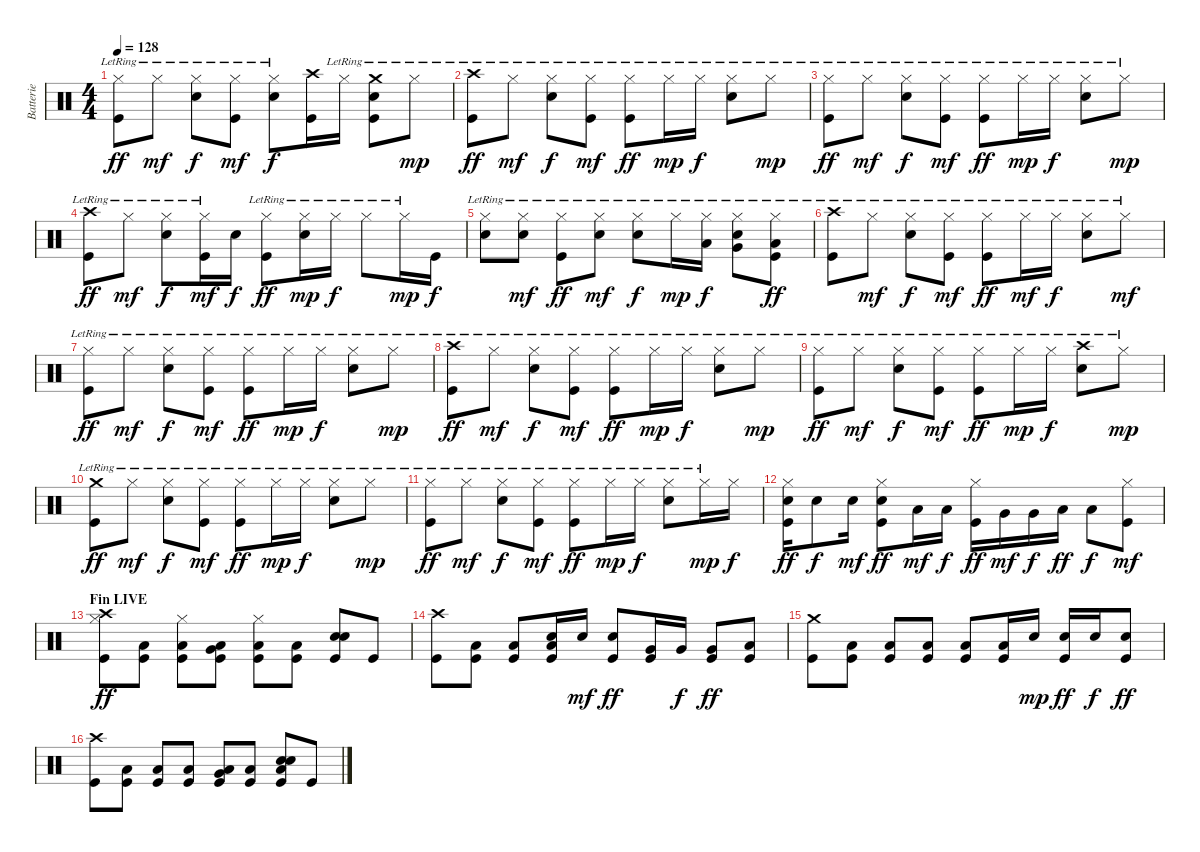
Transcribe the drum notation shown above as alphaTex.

\track ("Batterie" "Batterie") {instrument percussion}
\staff {score}
\articulation defaults
\ts (4 4)
\tempo 128
\clef neutral
\ks c
("Hi-Hat (closed)"{lr} "Kick (hit)"{lr}).8{dy ff} "Hi-Hat (closed)"{lr}.8{dy mf} ("Hi-Hat (closed)"{lr} "Snare (hit) 2"{lr}).8{dy f} ("Hi-Hat (closed)"{lr} "Kick (hit)"{lr}).8{dy mf} ("Hi-Hat (closed)"{lr} "Snare (hit) 2").8{dy f} ("Crash high (hit)" "Kick (hit)").16 "Hi-Hat (closed)"{lr}.16 ("Crash medium (hit)" "Snare (hit) 2"{lr} "Kick (hit)").8 "Hi-Hat (closed)"{lr}.8{dy mp} |
("Crash high (hit)" "Kick (hit)"{lr}).8{dy ff} "Hi-Hat (closed)"{lr}.8{dy mf} ("Hi-Hat (closed)"{lr} "Snare (hit) 2"{lr}).8{dy f} ("Hi-Hat (closed)"{lr} "Kick (hit)"{lr}).8{dy mf} ("Hi-Hat (closed)"{lr} "Kick (hit)"{lr}).8{dy ff} "Hi-Hat (closed)"{lr}.16{dy mp} "Hi-Hat (closed)"{lr}.16{dy f} ("Hi-Hat (closed)"{lr} "Snare (hit) 2"{lr}).8 "Hi-Hat (closed)"{lr}.8{dy mp} |
("Hi-Hat (closed)"{lr} "Kick (hit)"{lr}).8{dy ff} "Hi-Hat (closed)"{lr}.8{dy mf} ("Hi-Hat (closed)"{lr} "Snare (hit) 2"{lr}).8{dy f} ("Hi-Hat (closed)"{lr} "Kick (hit)"{lr}).8{dy mf} ("Hi-Hat (closed)"{lr} "Kick (hit)"{lr}).8{dy ff} "Hi-Hat (closed)"{lr}.16{dy mp} "Hi-Hat (closed)"{lr}.16{dy f} ("Hi-Hat (closed)"{lr} "Snare (hit) 2"{lr}).8 "Hi-Hat (closed)"{lr}.8{dy mp} |
("Crash high (hit)" "Kick (hit)"{lr}).8{dy ff} "Hi-Hat (closed)"{lr}.8{dy mf} ("Hi-Hat (closed)"{lr} "Snare (hit) 2"{lr}).8{dy f} ("Hi-Hat (closed)"{lr} "Kick (hit)"{lr}).16{dy mf} "Snare (hit) 2".16{dy f} ("Hi-Hat (closed)"{lr} "Kick (hit)"{lr}).8{dy ff} ("Hi-Hat (closed)"{lr} "Snare (hit) 2").16{dy mp} "Hi-Hat (closed)"{lr}.16{dy f} "Hi-Hat (closed)"{lr}.8 "Hi-Hat (closed)"{lr}.16{dy mp} "Kick (hit)".16{dy f} |
("Hi-Hat (closed)"{lr} "Snare (hit) 2").8 ("Hi-Hat (closed)"{lr} "Snare (hit) 2").8{dy mf} ("Hi-Hat (closed)"{lr} "Kick (hit)").8{dy ff} ("Hi-Hat (closed)"{lr} "Snare (hit) 2").8{dy mf} ("Hi-Hat (closed)"{lr} "Snare (hit) 2").8{dy f} "Hi-Hat (closed)"{lr}.16{dy mp} ("Low Tom (hit)" "Hi-Hat (closed)"{lr}).16{dy f} ("Very Low Tom (hit)" "Hi-Hat (closed)"{lr} "Snare (hit) 2"{lr}).8 ("Low Floor Tom (hit)" "Hi-Hat (closed)"{lr} "Kick (hit)"{lr}).8{dy ff} |
("Crash high (hit)"{lr} "Kick (hit)"{lr}).8 "Hi-Hat (closed)"{lr}.8{dy mf} ("Hi-Hat (closed)"{lr} "Snare (hit) 2"{lr}).8{dy f} ("Hi-Hat (closed)"{lr} "Kick (hit)"{lr}).8{dy mf} ("Hi-Hat (closed)"{lr} "Kick (hit)"{lr}).8{dy ff} "Hi-Hat (closed)"{lr}.16{dy mf} "Hi-Hat (closed)"{lr}.16{dy f} ("Hi-Hat (closed)"{lr} "Snare (hit) 2"{lr}).8 "Hi-Hat (closed)"{lr}.8{dy mf} |
("Hi-Hat (closed)"{lr} "Kick (hit)"{lr}).8{dy ff} "Hi-Hat (closed)"{lr}.8{dy mf} ("Hi-Hat (closed)"{lr} "Snare (hit) 2"{lr}).8{dy f} ("Hi-Hat (closed)"{lr} "Kick (hit)"{lr}).8{dy mf} ("Hi-Hat (closed)"{lr} "Kick (hit)"{lr}).8{dy ff} "Hi-Hat (closed)"{lr}.16{dy mp} "Hi-Hat (closed)"{lr}.16{dy f} ("Hi-Hat (closed)"{lr} "Snare (hit) 2"{lr}).8 "Hi-Hat (closed)"{lr}.8{dy mp} |
("Crash high (hit)" "Kick (hit)"{lr}).8{dy ff} "Hi-Hat (closed)"{lr}.8{dy mf} ("Hi-Hat (closed)"{lr} "Snare (hit) 2"{lr}).8{dy f} ("Hi-Hat (closed)"{lr} "Kick (hit)"{lr}).8{dy mf} ("Hi-Hat (closed)"{lr} "Kick (hit)"{lr}).8{dy ff} "Hi-Hat (closed)"{lr}.16{dy mp} "Hi-Hat (closed)"{lr}.16{dy f} ("Hi-Hat (closed)"{lr} "Snare (hit) 2"{lr}).8 "Hi-Hat (closed)"{lr}.8{dy mp} |
("Hi-Hat (closed)"{lr} "Kick (hit)"{lr}).8{dy ff} "Hi-Hat (closed)"{lr}.8{dy mf} ("Hi-Hat (closed)"{lr} "Snare (hit) 2"{lr}).8{dy f} ("Hi-Hat (closed)"{lr} "Kick (hit)"{lr}).8{dy mf} ("Hi-Hat (closed)"{lr} "Kick (hit)"{lr}).8{dy ff} "Hi-Hat (closed)"{lr}.16{dy mp} "Hi-Hat (closed)"{lr}.16{dy f} ("Crash high (hit)" "Snare (hit) 2"{lr}).8 "Hi-Hat (closed)"{lr}.8{dy mp} |
("Crash medium (hit)" "Kick (hit)"{lr}).8{dy ff} "Hi-Hat (closed)"{lr}.8{dy mf} ("Hi-Hat (closed)"{lr} "Snare (hit) 2"{lr}).8{dy f} ("Hi-Hat (closed)"{lr} "Kick (hit)"{lr}).8{dy mf} ("Hi-Hat (closed)"{lr} "Kick (hit)"{lr}).8{dy ff} "Hi-Hat (closed)"{lr}.16{dy mp} "Hi-Hat (closed)"{lr}.16{dy f} ("Hi-Hat (closed)"{lr} "Snare (hit) 2"{lr}).8 "Hi-Hat (closed)"{lr}.8{dy mp} |
("Hi-Hat (closed)"{lr} "Kick (hit)"{lr}).8{dy ff} "Hi-Hat (closed)"{lr}.8{dy mf} ("Hi-Hat (closed)"{lr} "Snare (hit) 2"{lr}).8{dy f} ("Hi-Hat (closed)"{lr} "Kick (hit)"{lr}).8{dy mf} ("Hi-Hat (closed)"{lr} "Kick (hit)"{lr}).8{dy ff} "Hi-Hat (closed)"{lr}.16{dy mp} "Hi-Hat (closed)"{lr}.16{dy f} ("Hi-Hat (closed)"{lr} "Snare (hit) 2"{lr}).8 "Hi-Hat (closed)"{lr}.16{dy mp} "Hi-Hat (closed)".16{dy f} |
("Hi-Hat (closed)" "Snare (hit) 2" "Kick (hit)").16{dy ff} "Snare (hit) 2".8{dy f} "Snare (hit) 2".16{dy mf} ("Hi-Hat (closed)" "Snare (hit) 2" "Kick (hit)").8{dy ff} "Low Tom (hit)".16{dy mf} "Low Tom (hit)".16{dy f} ("Hi-Hat (closed)" "Kick (hit)").16{dy ff} "Very Low Tom (hit)".16{dy mf} "Very Low Tom (hit)".16{dy f} "Low Floor Tom (hit)".16{dy ff} "Low Floor Tom (hit)".8{dy f} ("Hi-Hat (closed)" "Kick (hit)").8{dy mf} |
\section ("" "Fin LIVE")
("Crash high (hit)" "Hi-Hat (closed)" "Kick (hit)").8{dy ff} ("Low Floor Tom (hit)" "Kick (hit)").8 ("Low Floor Tom (hit)" "Hi-Hat (closed)" "Kick (hit)").8 ("Very Low Tom (hit)" "Low Floor Tom (hit)" "Kick (hit)").8 ("Low Floor Tom (hit)" "Hi-Hat (closed)" "Kick (hit)").8 ("Low Floor Tom (hit)" "Kick (hit)").8 ("Snare (hit) 2" "Snare (hit) 2" "Kick (hit)").8{bu 60} "Kick (hit)".8 |
("Crash high (hit)" "Kick (hit)").8 ("Low Floor Tom (hit)" "Kick (hit)").8 ("Low Floor Tom (hit)" "Kick (hit)").8 ("Low Floor Tom (hit)" "Snare (hit) 2" "Kick (hit)").16 "Snare (hit) 2".16{dy mf} ("Snare (hit) 2" "Kick (hit)").8{dy ff} ("Very Low Tom (hit)" "Kick (hit)").16 "Very Low Tom (hit)".16{dy f} ("Very Low Tom (hit)" "Kick (hit)").8{dy ff} ("Low Floor Tom (hit)" "Kick (hit)").8 |
("Crash medium (hit)" "Kick (hit)").8 ("Low Floor Tom (hit)" "Kick (hit)").8 ("Low Floor Tom (hit)" "Kick (hit)").8 ("Low Floor Tom (hit)" "Kick (hit)").8 ("Low Floor Tom (hit)" "Kick (hit)").8 ("Low Floor Tom (hit)" "Kick (hit)").16 "Snare (hit) 2".16{dy mp} ("Snare (hit) 2" "Kick (hit)").16{dy ff} "Snare (hit) 2".16{dy f} ("Snare (hit) 2" "Kick (hit)").8{dy ff} |
("Crash high (hit)" "Kick (hit)").8 ("Low Floor Tom (hit)" "Kick (hit)").8 ("Low Floor Tom (hit)" "Kick (hit)").8 ("Low Floor Tom (hit)" "Kick (hit)").8 ("Very Low Tom (hit)" "Low Floor Tom (hit)" "Kick (hit)").8 ("Low Floor Tom (hit)" "Kick (hit)").8 ("Low Floor Tom (hit)" "Snare (hit) 2" "Snare (hit) 2" "Kick (hit)").8{bu 60} "Kick (hit)".8
